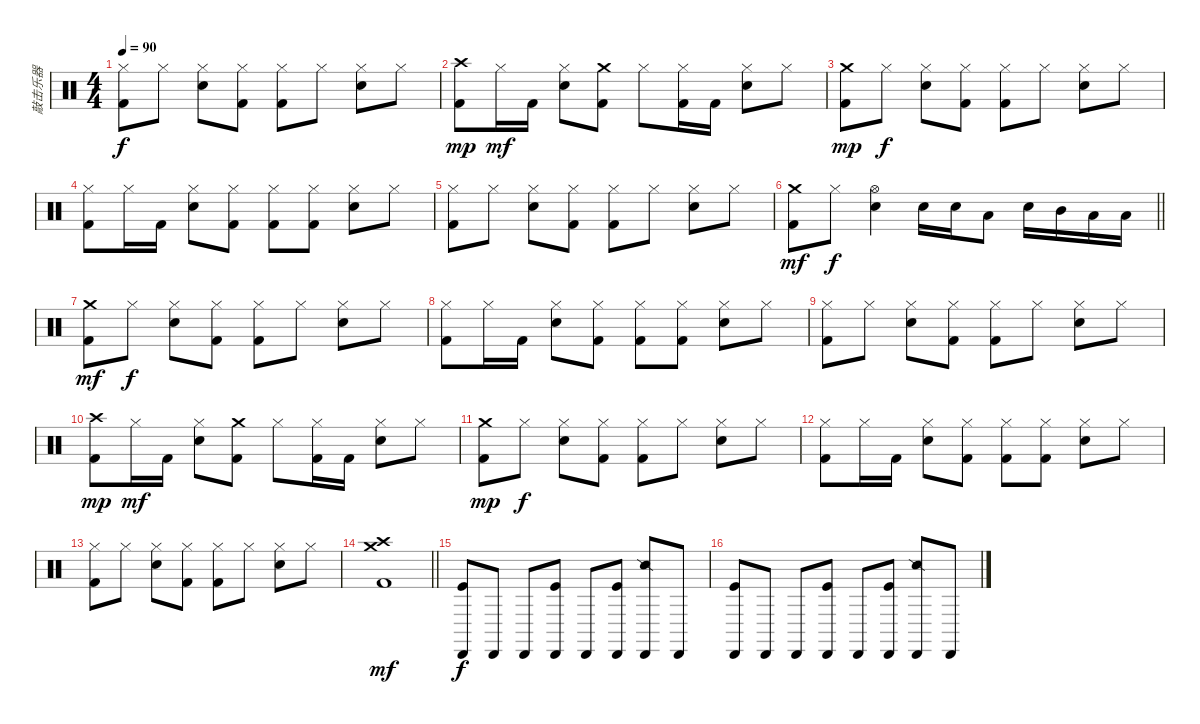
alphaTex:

\track ("敲击乐器" "敲击乐器") {instrument percussion}
\staff {score}
\articulation defaults
\ts (4 4)
\tempo 90
\clef neutral
\ks c
("Hi-Hat (closed)" "Kick (hit) 2").8{dy f} "Hi-Hat (closed)".8 ("Hi-Hat (closed)" "Snare (hit) 2").8 ("Hi-Hat (closed)" "Kick (hit) 2").8 ("Hi-Hat (closed)" "Kick (hit) 2").8 "Hi-Hat (closed)".8 ("Hi-Hat (closed)" "Snare (hit) 2").8 "Hi-Hat (closed)".8 |
("Crash high (hit)" "Kick (hit) 2").8{dy mp} "Hi-Hat (closed)".16{dy mf} "Kick (hit) 2".16 ("Hi-Hat (closed)" "Snare (hit) 2").8 ("Crash medium (hit)" "Kick (hit) 2").8 "Hi-Hat (closed)".8 ("Hi-Hat (closed)" "Kick (hit) 2").16 "Kick (hit) 2".16 ("Hi-Hat (closed)" "Snare (hit) 2").8 "Hi-Hat (closed)".8 |
("Crash medium (hit)" "Kick (hit) 2").8{dy mp} "Hi-Hat (closed)".8{dy f} ("Hi-Hat (closed)" "Snare (hit) 2").8 ("Hi-Hat (closed)" "Kick (hit) 2").8 ("Hi-Hat (closed)" "Kick (hit) 2").8 "Hi-Hat (closed)".8 ("Hi-Hat (closed)" "Snare (hit) 2").8 "Hi-Hat (closed)".8 |
("Hi-Hat (closed)" "Kick (hit) 2").8 "Hi-Hat (closed)".16 "Kick (hit) 2".16 ("Hi-Hat (closed)" "Snare (hit) 2").8 ("Hi-Hat (closed)" "Kick (hit) 2").8 ("Hi-Hat (closed)" "Kick (hit) 2").8 ("Hi-Hat (closed)" "Kick (hit) 2").8 ("Hi-Hat (closed)" "Snare (hit) 2").8 "Hi-Hat (closed)".8 |
("Hi-Hat (closed)" "Kick (hit) 2").8 "Hi-Hat (closed)".8 ("Hi-Hat (closed)" "Snare (hit) 2").8 ("Hi-Hat (closed)" "Kick (hit) 2").8 ("Hi-Hat (closed)" "Kick (hit) 2").8 "Hi-Hat (closed)".8 ("Hi-Hat (closed)" "Snare (hit) 2").8 "Hi-Hat (closed)".8 |
\barLineRight lightlight
("Crash medium (hit)" "Kick (hit) 2").8{dy mf} "Hi-Hat (closed)".8{dy f} ("Hi-Hat (open)" "Snare (hit) 2").4 "Snare (hit) 2".16 "Snare (hit) 2".16 "Low Tom (hit)".8 "Snare (hit) 2".16 "Mid Tom (hit)".16 "Low Tom (hit)".16 "Low Tom (hit)".16 |
("Crash medium (hit)" "Kick (hit) 2").8{dy mf} "Hi-Hat (closed)".8{dy f} ("Hi-Hat (closed)" "Snare (hit) 2").8 ("Hi-Hat (closed)" "Kick (hit) 2").8 ("Hi-Hat (closed)" "Kick (hit) 2").8 "Hi-Hat (closed)".8 ("Hi-Hat (closed)" "Snare (hit) 2").8 "Hi-Hat (closed)".8 |
("Hi-Hat (closed)" "Kick (hit) 2").8 "Hi-Hat (closed)".16 "Kick (hit) 2".16 ("Hi-Hat (closed)" "Snare (hit) 2").8 ("Hi-Hat (closed)" "Kick (hit) 2").8 ("Hi-Hat (closed)" "Kick (hit) 2").8 ("Hi-Hat (closed)" "Kick (hit) 2").8 ("Hi-Hat (closed)" "Snare (hit) 2").8 "Hi-Hat (closed)".8 |
("Hi-Hat (closed)" "Kick (hit) 2").8 "Hi-Hat (closed)".8 ("Hi-Hat (closed)" "Snare (hit) 2").8 ("Hi-Hat (closed)" "Kick (hit) 2").8 ("Hi-Hat (closed)" "Kick (hit) 2").8 "Hi-Hat (closed)".8 ("Hi-Hat (closed)" "Snare (hit) 2").8 "Hi-Hat (closed)".8 |
("Crash high (hit)" "Kick (hit) 2").8{dy mp} "Hi-Hat (closed)".16{dy mf} "Kick (hit) 2".16 ("Hi-Hat (closed)" "Snare (hit) 2").8 ("Crash medium (hit)" "Kick (hit) 2").8 "Hi-Hat (closed)".8 ("Hi-Hat (closed)" "Kick (hit) 2").16 "Kick (hit) 2".16 ("Hi-Hat (closed)" "Snare (hit) 2").8 "Hi-Hat (closed)".8 |
("Crash medium (hit)" "Kick (hit) 2").8{dy mp} "Hi-Hat (closed)".8{dy f} ("Hi-Hat (closed)" "Snare (hit) 2").8 ("Hi-Hat (closed)" "Kick (hit) 2").8 ("Hi-Hat (closed)" "Kick (hit) 2").8 "Hi-Hat (closed)".8 ("Hi-Hat (closed)" "Snare (hit) 2").8 "Hi-Hat (closed)".8 |
("Hi-Hat (closed)" "Kick (hit) 2").8 "Hi-Hat (closed)".16 "Kick (hit) 2".16 ("Hi-Hat (closed)" "Snare (hit) 2").8 ("Hi-Hat (closed)" "Kick (hit) 2").8 ("Hi-Hat (closed)" "Kick (hit) 2").8 ("Hi-Hat (closed)" "Kick (hit) 2").8 ("Hi-Hat (closed)" "Snare (hit) 2").8 "Hi-Hat (closed)".8 |
("Hi-Hat (closed)" "Kick (hit) 2").8 "Hi-Hat (closed)".8 ("Hi-Hat (closed)" "Snare (hit) 2").8 ("Hi-Hat (closed)" "Kick (hit) 2").8 ("Hi-Hat (closed)" "Kick (hit) 2").8 "Hi-Hat (closed)".8 ("Hi-Hat (closed)" "Snare (hit) 2").8 "Hi-Hat (closed)".8 |
\barLineRight lightlight
("Crash medium (hit)" "Crash high (hit)" "Kick (hit) 2").1{dy mf} |
("Cabasa (hit)" "Kick (hit)").8{dy f} "Cabasa (hit)".8 "Cabasa (hit)".8 ("Cabasa (hit)" "Kick (hit)").8 "Cabasa (hit)".8 ("Cabasa (hit)" "Kick (hit)").8 ("Cabasa (hit)" "Snare (side stick) 2").8 "Cabasa (hit)".8 |
("Cabasa (hit)" "Kick (hit)").8 "Cabasa (hit)".8 "Cabasa (hit)".8 ("Cabasa (hit)" "Kick (hit)").8 "Cabasa (hit)".8 ("Cabasa (hit)" "Kick (hit)").8 ("Cabasa (hit)" "Snare (side stick) 2").8 "Cabasa (hit)".8
